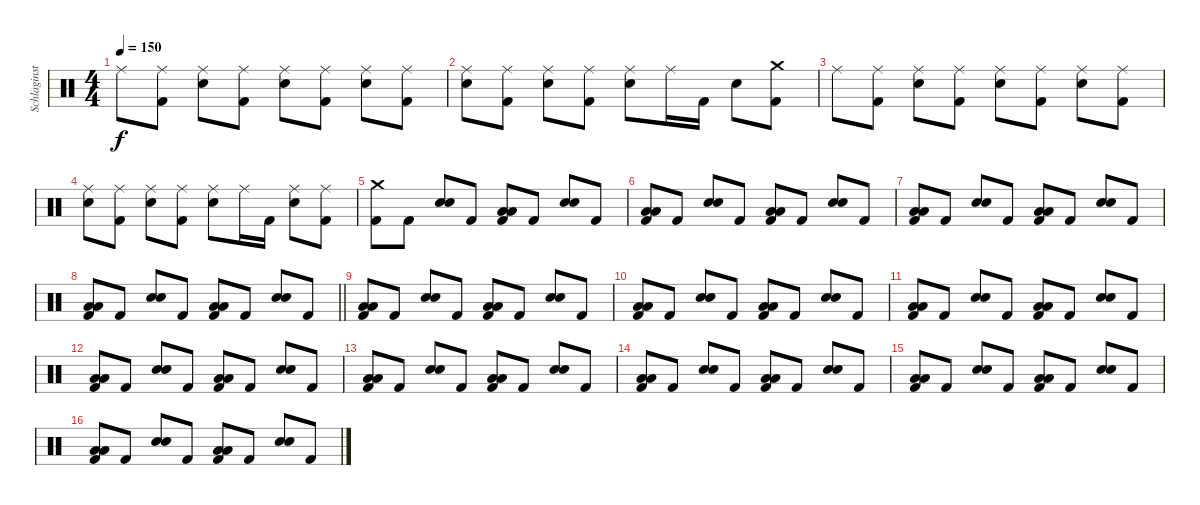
\track ("Schlaginstrumente - Auswahl" "Schlaginst") {instrument percussion}
\staff {score}
\articulation defaults
\ts (4 4)
\tempo 150
\clef neutral
\ks c "Ride (middle)".8{dy f}
("Ride (middle)" "Kick (hit) 2").8 ("Ride (middle)" "Snare (hit) 2").8 ("Ride (middle)" "Kick (hit) 2").8 ("Ride (middle)" "Snare (hit) 2").8 ("Ride (middle)" "Kick (hit) 2").8 ("Ride (middle)" "Snare (hit) 2").8 ("Ride (middle)" "Kick (hit) 2").8 |
("Ride (middle)" "Snare (hit) 2").8 ("Ride (middle)" "Kick (hit) 2").8 ("Ride (middle)" "Snare (hit) 2").8 ("Ride (middle)" "Kick (hit) 2").8 ("Ride (middle)" "Snare (hit) 2").8 "Ride (middle)".16 "Kick (hit) 2".16 "Snare (hit) 2".8 ("Crash medium (hit)" "Kick (hit) 2").8 |
"Ride (middle)".8 ("Ride (middle)" "Kick (hit) 2").8 ("Ride (middle)" "Snare (hit) 2").8 ("Ride (middle)" "Kick (hit) 2").8 ("Ride (middle)" "Snare (hit) 2").8 ("Ride (middle)" "Kick (hit) 2").8 ("Ride (middle)" "Snare (hit) 2").8 ("Ride (middle)" "Kick (hit) 2").8 |
("Ride (middle)" "Snare (hit) 2").8 ("Ride (middle)" "Kick (hit) 2").8 ("Ride (middle)" "Snare (hit) 2").8 ("Ride (middle)" "Kick (hit) 2").8 ("Ride (middle)" "Snare (hit) 2").8 "Ride (middle)".16 "Kick (hit) 2".16 ("Ride (middle)" "Snare (hit) 2").8 ("Ride (middle)" "Kick (hit) 2").8 |
("Crash medium (hit)" "Kick (hit) 2").8 "Kick (hit) 2".8 ("Snare (hit) 2" "Snare (hit) 2").8{bd 120} "Kick (hit) 2".8 ("Low Tom (hit)" "Low Tom (hit)" "Kick (hit) 2").8 "Kick (hit) 2".8 ("Snare (hit) 2" "Snare (hit) 2").8{bd 120} "Kick (hit) 2".8 |
("Low Tom (hit)" "Low Tom (hit)" "Kick (hit) 2").8 "Kick (hit) 2".8 ("Snare (hit) 2" "Snare (hit) 2").8{bd 120} "Kick (hit) 2".8 ("Low Tom (hit)" "Low Tom (hit)" "Kick (hit) 2").8 "Kick (hit) 2".8 ("Snare (hit) 2" "Snare (hit) 2").8{bd 120} "Kick (hit) 2".8 |
("Low Tom (hit)" "Low Tom (hit)" "Kick (hit) 2").8 "Kick (hit) 2".8 ("Snare (hit) 2" "Snare (hit) 2").8{bd 120} "Kick (hit) 2".8 ("Low Tom (hit)" "Low Tom (hit)" "Kick (hit) 2").8 "Kick (hit) 2".8 ("Snare (hit) 2" "Snare (hit) 2").8{bd 120} "Kick (hit) 2".8 |
\barLineRight lightlight
("Low Tom (hit)" "Low Tom (hit)" "Kick (hit) 2").8 "Kick (hit) 2".8 ("Snare (hit) 2" "Snare (hit) 2").8{bd 120} "Kick (hit) 2".8 ("Low Tom (hit)" "Low Tom (hit)" "Kick (hit) 2").8 "Kick (hit) 2".8 ("Snare (hit) 2" "Snare (hit) 2").8{bd 120} "Kick (hit) 2".8 |
("Low Tom (hit)" "Low Tom (hit)" "Kick (hit) 2").8 "Kick (hit) 2".8 ("Snare (hit) 2" "Snare (hit) 2").8{bd 120} "Kick (hit) 2".8 ("Low Tom (hit)" "Low Tom (hit)" "Kick (hit) 2").8 "Kick (hit) 2".8 ("Snare (hit) 2" "Snare (hit) 2").8{bd 120} "Kick (hit) 2".8 |
("Low Tom (hit)" "Low Tom (hit)" "Kick (hit) 2").8 "Kick (hit) 2".8 ("Snare (hit) 2" "Snare (hit) 2").8{bd 120} "Kick (hit) 2".8 ("Low Tom (hit)" "Low Tom (hit)" "Kick (hit) 2").8 "Kick (hit) 2".8 ("Snare (hit) 2" "Snare (hit) 2").8{bd 120} "Kick (hit) 2".8 |
("Low Tom (hit)" "Low Tom (hit)" "Kick (hit) 2").8 "Kick (hit) 2".8 ("Snare (hit) 2" "Snare (hit) 2").8{bd 120} "Kick (hit) 2".8 ("Low Tom (hit)" "Low Tom (hit)" "Kick (hit) 2").8 "Kick (hit) 2".8 ("Snare (hit) 2" "Snare (hit) 2").8{bd 120} "Kick (hit) 2".8 |
("Low Tom (hit)" "Low Tom (hit)" "Kick (hit) 2").8 "Kick (hit) 2".8 ("Snare (hit) 2" "Snare (hit) 2").8{bd 120} "Kick (hit) 2".8 ("Low Tom (hit)" "Low Tom (hit)" "Kick (hit) 2").8 "Kick (hit) 2".8 ("Snare (hit) 2" "Snare (hit) 2").8{bd 120} "Kick (hit) 2".8 |
("Low Tom (hit)" "Low Tom (hit)" "Kick (hit) 2").8 "Kick (hit) 2".8 ("Snare (hit) 2" "Snare (hit) 2").8{bd 120} "Kick (hit) 2".8 ("Low Tom (hit)" "Low Tom (hit)" "Kick (hit) 2").8 "Kick (hit) 2".8 ("Snare (hit) 2" "Snare (hit) 2").8{bd 120} "Kick (hit) 2".8 |
("Low Tom (hit)" "Low Tom (hit)" "Kick (hit) 2").8 "Kick (hit) 2".8 ("Snare (hit) 2" "Snare (hit) 2").8{bd 120} "Kick (hit) 2".8 ("Low Tom (hit)" "Low Tom (hit)" "Kick (hit) 2").8 "Kick (hit) 2".8 ("Snare (hit) 2" "Snare (hit) 2").8{bd 120} "Kick (hit) 2".8 |
("Low Tom (hit)" "Low Tom (hit)" "Kick (hit) 2").8 "Kick (hit) 2".8 ("Snare (hit) 2" "Snare (hit) 2").8{bd 120} "Kick (hit) 2".8 ("Low Tom (hit)" "Low Tom (hit)" "Kick (hit) 2").8 "Kick (hit) 2".8 ("Snare (hit) 2" "Snare (hit) 2").8{bd 120} "Kick (hit) 2".8 |
("Low Tom (hit)" "Low Tom (hit)" "Kick (hit) 2").8 "Kick (hit) 2".8 ("Snare (hit) 2" "Snare (hit) 2").8{bd 120} "Kick (hit) 2".8 ("Low Tom (hit)" "Low Tom (hit)" "Kick (hit) 2").8 "Kick (hit) 2".8 ("Snare (hit) 2" "Snare (hit) 2").8{bd 120} "Kick (hit) 2".8
